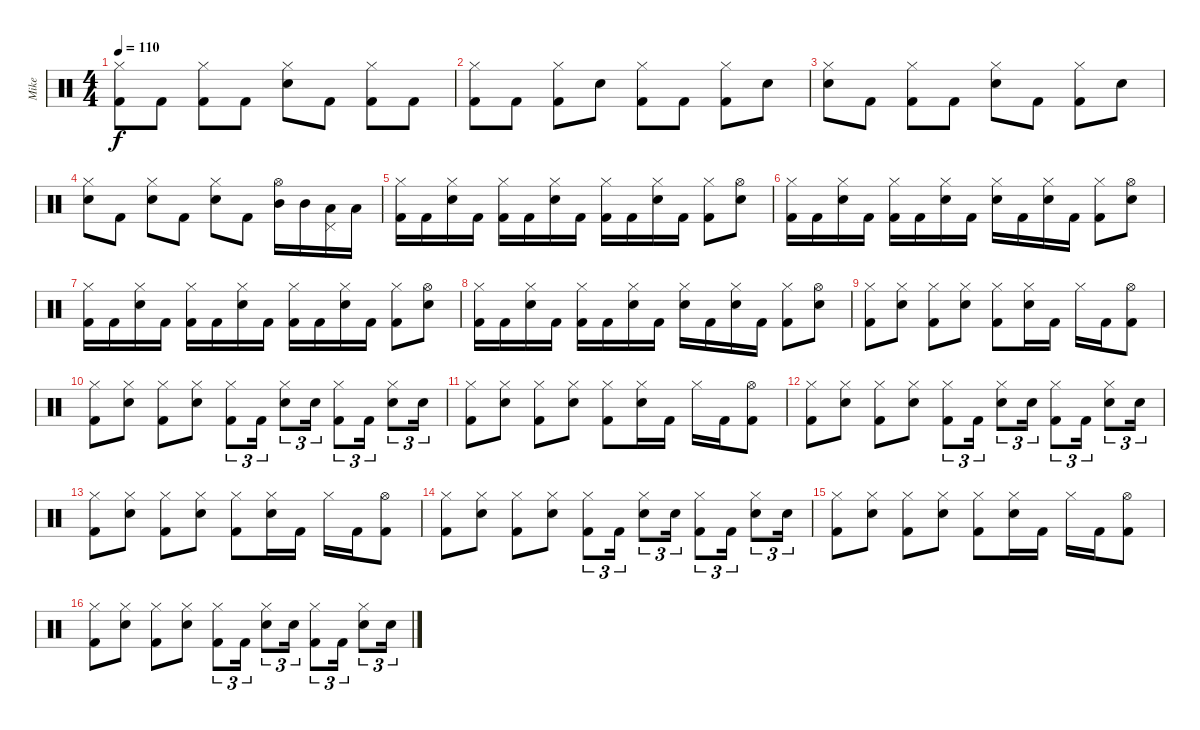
\track ("Mike" "Mike") {instrument percussion}
\staff {score}
\articulation defaults
\ts (4 4)
\tempo 110
\clef neutral
\ks c
("Hi-Hat (closed)" "Kick (hit) 2").8{dy f} "Kick (hit) 2".8 ("Hi-Hat (closed)" "Kick (hit) 2").8 "Kick (hit) 2".8 ("Hi-Hat (closed)" "Electric Snare (hit)").8 "Kick (hit) 2".8 ("Hi-Hat (closed)" "Kick (hit) 2").8 "Kick (hit) 2".8 |
("Hi-Hat (closed)" "Kick (hit) 2").8 "Kick (hit) 2".8 ("Hi-Hat (closed)" "Kick (hit) 2").8 "Electric Snare (hit)".8 ("Hi-Hat (closed)" "Kick (hit) 2").8 "Kick (hit) 2".8 ("Hi-Hat (closed)" "Kick (hit) 2").8 "Electric Snare (hit)".8 |
("Hi-Hat (closed)" "Electric Snare (hit)").8 "Kick (hit) 2".8 ("Hi-Hat (closed)" "Kick (hit) 2").8 "Kick (hit) 2".8 ("Hi-Hat (closed)" "Electric Snare (hit)").8 "Kick (hit) 2".8 ("Hi-Hat (closed)" "Kick (hit) 2").8 "Electric Snare (hit)".8 |
("Hi-Hat (closed)" "Electric Snare (hit)").8 "Kick (hit) 2".8 ("Hi-Hat (closed)" "Electric Snare (hit)").8 "Kick (hit) 2".8 ("Hi-Hat (closed)" "Electric Snare (hit)").8 "Kick (hit) 2".8 ("Hi-Hat (open)" "Mid Tom (hit)").16 "Mid Tom (hit)".16 ("Pedal Hi-Hat (hit)" "Low Tom (hit)").16 "Low Tom (hit)".16 |
("Hi-Hat (closed)" "Kick (hit) 2").16 "Kick (hit) 2".16 ("Hi-Hat (closed)" "Electric Snare (hit)").16 "Kick (hit) 2".16 ("Hi-Hat (closed)" "Kick (hit) 2").16 "Kick (hit) 2".16 ("Hi-Hat (closed)" "Electric Snare (hit)").16 "Kick (hit) 2".16 ("Hi-Hat (closed)" "Kick (hit) 2").16 "Kick (hit) 2".16 ("Hi-Hat (closed)" "Electric Snare (hit)").16 "Kick (hit) 2".16 ("Hi-Hat (closed)" "Kick (hit) 2").8 ("Hi-Hat (open)" "Electric Snare (hit)").8 |
("Hi-Hat (closed)" "Kick (hit) 2").16 "Kick (hit) 2".16 ("Hi-Hat (closed)" "Electric Snare (hit)").16 "Kick (hit) 2".16 ("Hi-Hat (closed)" "Kick (hit) 2").16 "Kick (hit) 2".16 ("Hi-Hat (closed)" "Electric Snare (hit)").16 "Kick (hit) 2".16 ("Hi-Hat (closed)" "Electric Snare (hit)").16 "Kick (hit) 2".16 ("Hi-Hat (closed)" "Electric Snare (hit)").16 "Kick (hit) 2".16 ("Hi-Hat (closed)" "Kick (hit) 2").8 ("Hi-Hat (open)" "Electric Snare (hit)").8 |
("Hi-Hat (closed)" "Kick (hit) 2").16 "Kick (hit) 2".16 ("Hi-Hat (closed)" "Electric Snare (hit)").16 "Kick (hit) 2".16 ("Hi-Hat (closed)" "Kick (hit) 2").16 "Kick (hit) 2".16 ("Hi-Hat (closed)" "Electric Snare (hit)").16 "Kick (hit) 2".16 ("Hi-Hat (closed)" "Kick (hit) 2").16 "Kick (hit) 2".16 ("Hi-Hat (closed)" "Electric Snare (hit)").16 "Kick (hit) 2".16 ("Hi-Hat (closed)" "Kick (hit) 2").8 ("Hi-Hat (open)" "Electric Snare (hit)").8 |
("Hi-Hat (closed)" "Kick (hit) 2").16 "Kick (hit) 2".16 ("Hi-Hat (closed)" "Electric Snare (hit)").16 "Kick (hit) 2".16 ("Hi-Hat (closed)" "Kick (hit) 2").16 "Kick (hit) 2".16 ("Hi-Hat (closed)" "Electric Snare (hit)").16 "Kick (hit) 2".16 ("Hi-Hat (closed)" "Electric Snare (hit)").16 "Kick (hit) 2".16 ("Hi-Hat (closed)" "Electric Snare (hit)").16 "Kick (hit) 2".16 ("Hi-Hat (closed)" "Kick (hit) 2").8 ("Hi-Hat (open)" "Electric Snare (hit)").8 |
("Hi-Hat (closed)" "Kick (hit) 2").8 ("Hi-Hat (closed)" "Electric Snare (hit)").8 ("Hi-Hat (closed)" "Kick (hit) 2").8 ("Hi-Hat (closed)" "Electric Snare (hit)").8 ("Hi-Hat (closed)" "Kick (hit) 2").8 ("Hi-Hat (closed)" "Electric Snare (hit)").16 "Kick (hit) 2".16 "Hi-Hat (closed)".16 "Kick (hit) 2".16 ("Hi-Hat (open)" "Kick (hit) 2").8 |
("Hi-Hat (closed)" "Kick (hit) 2").8 ("Hi-Hat (closed)" "Electric Snare (hit)").8 ("Hi-Hat (closed)" "Kick (hit) 2").8 ("Hi-Hat (closed)" "Electric Snare (hit)").8 ("Hi-Hat (closed)" "Kick (hit) 2").8{tu (3 2)} "Kick (hit) 2".16{tu (3 2)} ("Hi-Hat (closed)" "Electric Snare (hit)").8{tu (3 2)} "Electric Snare (hit)".16{tu (3 2)} ("Hi-Hat (closed)" "Kick (hit) 2").8{tu (3 2)} "Kick (hit) 2".16{tu (3 2)} ("Hi-Hat (closed)" "Electric Snare (hit)").8{tu (3 2)} "Electric Snare (hit)".16{tu (3 2)} |
("Hi-Hat (closed)" "Kick (hit) 2").8 ("Hi-Hat (closed)" "Electric Snare (hit)").8 ("Hi-Hat (closed)" "Kick (hit) 2").8 ("Hi-Hat (closed)" "Electric Snare (hit)").8 ("Hi-Hat (closed)" "Kick (hit) 2").8 ("Hi-Hat (closed)" "Electric Snare (hit)").16 "Kick (hit) 2".16 "Hi-Hat (closed)".16 "Kick (hit) 2".16 ("Hi-Hat (open)" "Kick (hit) 2").8 |
("Hi-Hat (closed)" "Kick (hit) 2").8 ("Hi-Hat (closed)" "Electric Snare (hit)").8 ("Hi-Hat (closed)" "Kick (hit) 2").8 ("Hi-Hat (closed)" "Electric Snare (hit)").8 ("Hi-Hat (closed)" "Kick (hit) 2").8{tu (3 2)} "Kick (hit) 2".16{tu (3 2)} ("Hi-Hat (closed)" "Electric Snare (hit)").8{tu (3 2)} "Electric Snare (hit)".16{tu (3 2)} ("Hi-Hat (closed)" "Kick (hit) 2").8{tu (3 2)} "Kick (hit) 2".16{tu (3 2)} ("Hi-Hat (closed)" "Electric Snare (hit)").8{tu (3 2)} "Electric Snare (hit)".16{tu (3 2)} |
("Hi-Hat (closed)" "Kick (hit) 2").8 ("Hi-Hat (closed)" "Electric Snare (hit)").8 ("Hi-Hat (closed)" "Kick (hit) 2").8 ("Hi-Hat (closed)" "Electric Snare (hit)").8 ("Hi-Hat (closed)" "Kick (hit) 2").8 ("Hi-Hat (closed)" "Electric Snare (hit)").16 "Kick (hit) 2".16 "Hi-Hat (closed)".16 "Kick (hit) 2".16 ("Hi-Hat (open)" "Kick (hit) 2").8 |
("Hi-Hat (closed)" "Kick (hit) 2").8 ("Hi-Hat (closed)" "Electric Snare (hit)").8 ("Hi-Hat (closed)" "Kick (hit) 2").8 ("Hi-Hat (closed)" "Electric Snare (hit)").8 ("Hi-Hat (closed)" "Kick (hit) 2").8{tu (3 2)} "Kick (hit) 2".16{tu (3 2)} ("Hi-Hat (closed)" "Electric Snare (hit)").8{tu (3 2)} "Electric Snare (hit)".16{tu (3 2)} ("Hi-Hat (closed)" "Kick (hit) 2").8{tu (3 2)} "Kick (hit) 2".16{tu (3 2)} ("Hi-Hat (closed)" "Electric Snare (hit)").8{tu (3 2)} "Electric Snare (hit)".16{tu (3 2)} |
("Hi-Hat (closed)" "Kick (hit) 2").8 ("Hi-Hat (closed)" "Electric Snare (hit)").8 ("Hi-Hat (closed)" "Kick (hit) 2").8 ("Hi-Hat (closed)" "Electric Snare (hit)").8 ("Hi-Hat (closed)" "Kick (hit) 2").8 ("Hi-Hat (closed)" "Electric Snare (hit)").16 "Kick (hit) 2".16 "Hi-Hat (closed)".16 "Kick (hit) 2".16 ("Hi-Hat (open)" "Kick (hit) 2").8 |
("Hi-Hat (closed)" "Kick (hit) 2").8 ("Hi-Hat (closed)" "Electric Snare (hit)").8 ("Hi-Hat (closed)" "Kick (hit) 2").8 ("Hi-Hat (closed)" "Electric Snare (hit)").8 ("Hi-Hat (closed)" "Kick (hit) 2").8{tu (3 2)} "Kick (hit) 2".16{tu (3 2)} ("Hi-Hat (closed)" "Electric Snare (hit)").8{tu (3 2)} "Electric Snare (hit)".16{tu (3 2)} ("Hi-Hat (closed)" "Kick (hit) 2").8{tu (3 2)} "Kick (hit) 2".16{tu (3 2)} ("Hi-Hat (closed)" "Electric Snare (hit)").8{tu (3 2)} "Electric Snare (hit)".16{tu (3 2)}
